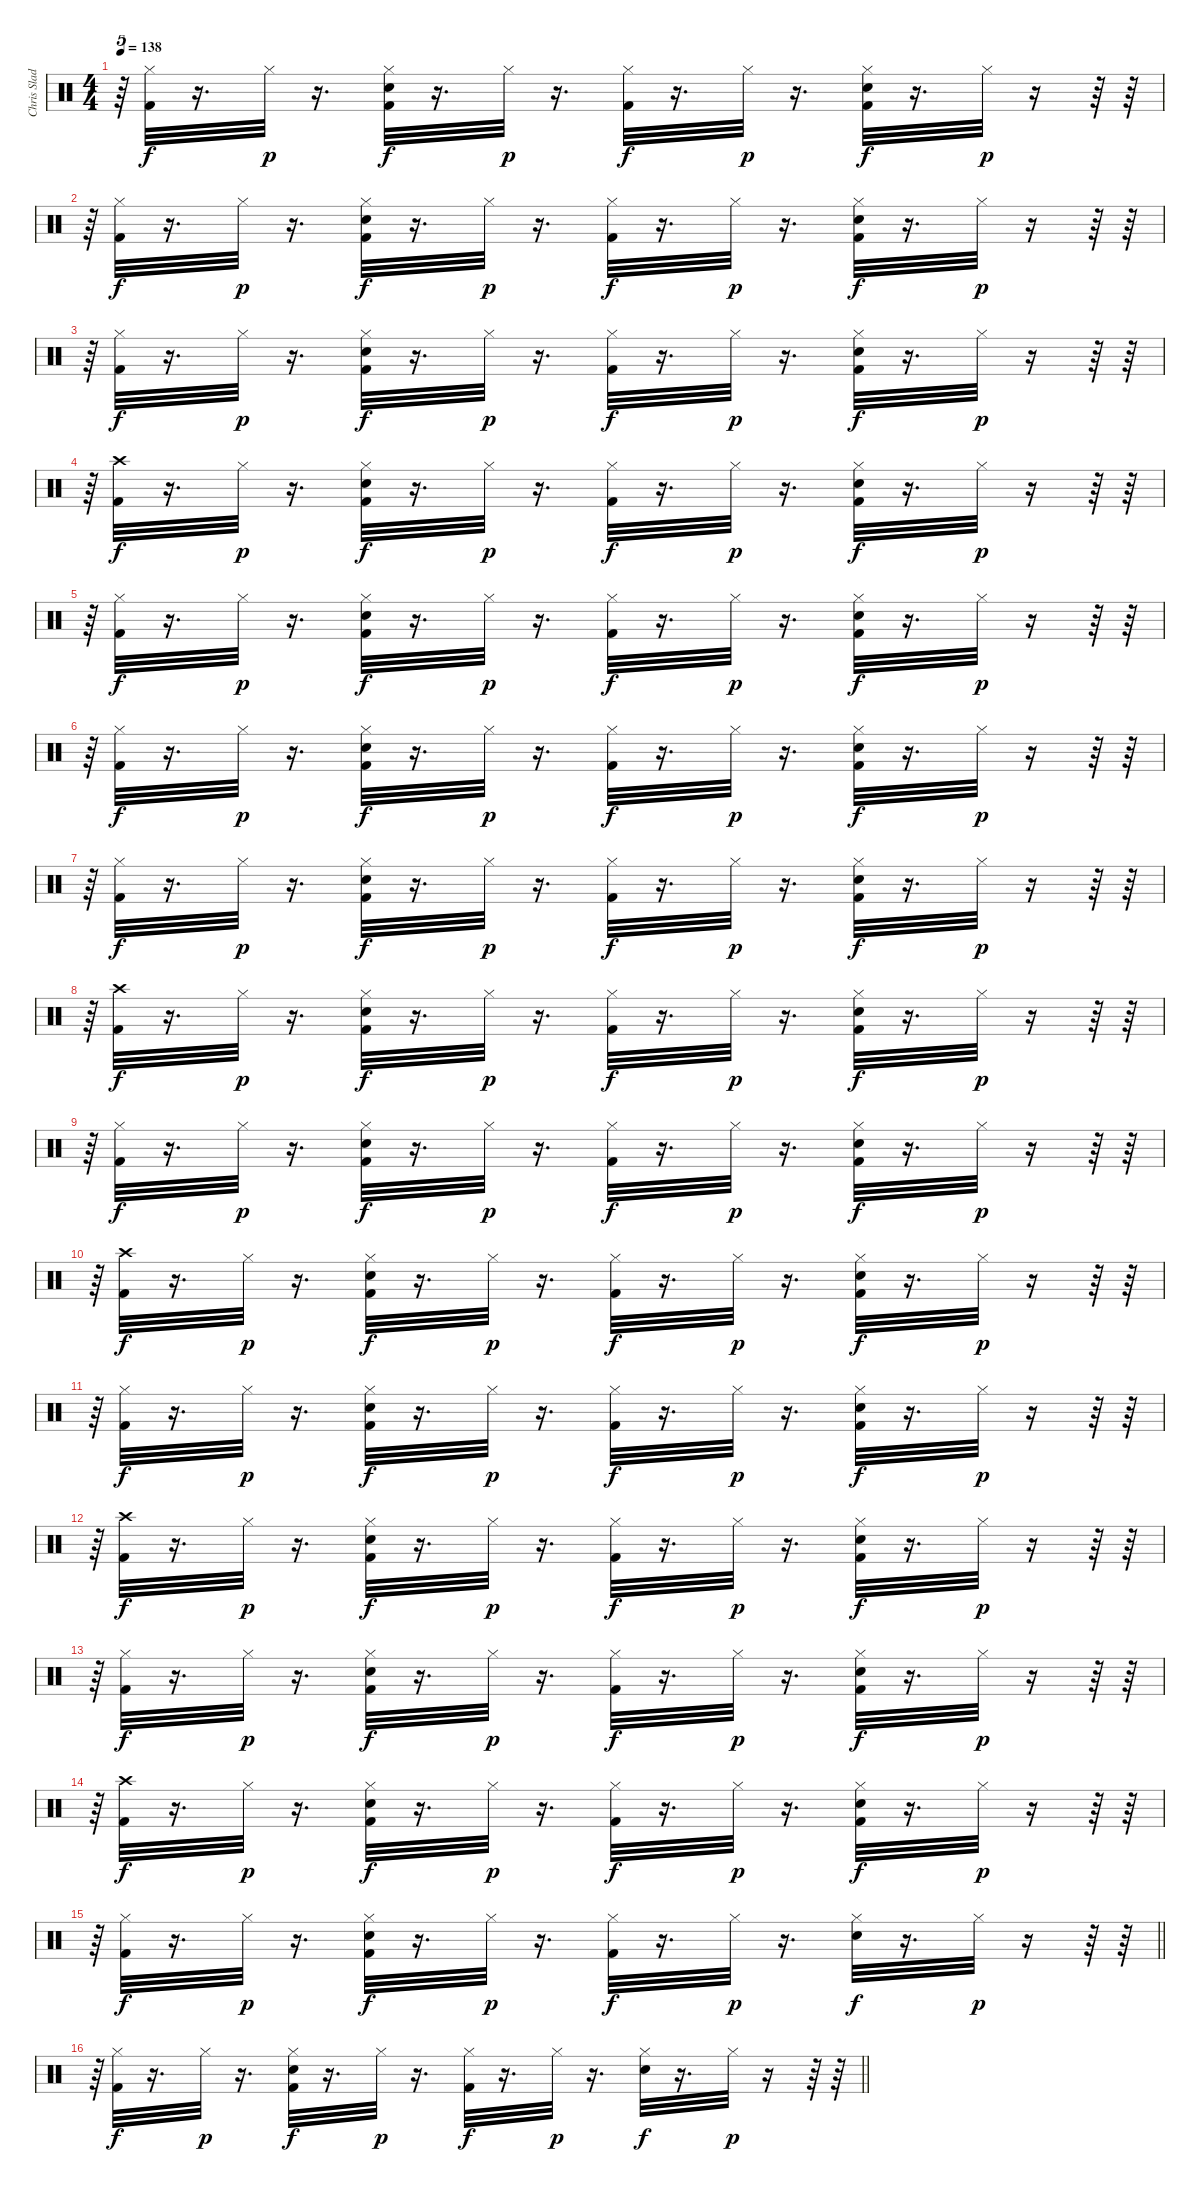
\track ("Chris Slade" "Chris Slad") {instrument percussion}
\staff {score}
\articulation defaults
\ts (4 4)
\tempo 138
\clef neutral
\ks c
r.64{tu (5 4) dy p} ("Hi-Hat (closed)" "Kick (hit) 2").32{dy f} r.16{d} "Hi-Hat (closed)".32{dy p} r.16{d} ("Kick (hit) 2" "Hi-Hat (closed)" "Electric Snare (hit)").32{dy f} r.16{d} "Hi-Hat (closed)".32{dy p} r.16{d} ("Hi-Hat (closed)" "Kick (hit) 2").32{dy f} r.16{d} "Hi-Hat (closed)".32{dy p} r.16{d} ("Kick (hit) 2" "Hi-Hat (closed)" "Electric Snare (hit)").32{dy f} r.16{d} "Hi-Hat (closed)".32{dy p} r.16 r.64 r.64 |
r.64{tu (5 4)} ("Hi-Hat (closed)" "Kick (hit) 2").32{dy f} r.16{d} "Hi-Hat (closed)".32{dy p} r.16{d} ("Kick (hit) 2" "Hi-Hat (closed)" "Electric Snare (hit)").32{dy f} r.16{d} "Hi-Hat (closed)".32{dy p} r.16{d} ("Hi-Hat (closed)" "Kick (hit) 2").32{dy f} r.16{d} "Hi-Hat (closed)".32{dy p} r.16{d} ("Kick (hit) 2" "Hi-Hat (closed)" "Electric Snare (hit)").32{dy f} r.16{d} "Hi-Hat (closed)".32{dy p} r.16 r.64 r.64 |
r.64{tu (5 4)} ("Hi-Hat (closed)" "Kick (hit) 2").32{dy f} r.16{d} "Hi-Hat (closed)".32{dy p} r.16{d} ("Kick (hit) 2" "Hi-Hat (closed)" "Electric Snare (hit)").32{dy f} r.16{d} "Hi-Hat (closed)".32{dy p} r.16{d} ("Hi-Hat (closed)" "Kick (hit) 2").32{dy f} r.16{d} "Hi-Hat (closed)".32{dy p} r.16{d} ("Kick (hit) 2" "Hi-Hat (closed)" "Electric Snare (hit)").32{dy f} r.16{d} "Hi-Hat (closed)".32{dy p} r.16 r.64 r.64 |
r.64{tu (5 4)} ("Crash high (hit)" "Kick (hit) 2").32{dy f} r.16{d} "Hi-Hat (closed)".32{dy p} r.16{d} ("Kick (hit) 2" "Hi-Hat (closed)" "Electric Snare (hit)").32{dy f} r.16{d} "Hi-Hat (closed)".32{dy p} r.16{d} ("Hi-Hat (closed)" "Kick (hit) 2").32{dy f} r.16{d} "Hi-Hat (closed)".32{dy p} r.16{d} ("Kick (hit) 2" "Hi-Hat (closed)" "Electric Snare (hit)").32{dy f} r.16{d} "Hi-Hat (closed)".32{dy p} r.16 r.64 r.64 |
r.64{tu (5 4)} ("Hi-Hat (closed)" "Kick (hit) 2").32{dy f} r.16{d} "Hi-Hat (closed)".32{dy p} r.16{d} ("Kick (hit) 2" "Hi-Hat (closed)" "Electric Snare (hit)").32{dy f} r.16{d} "Hi-Hat (closed)".32{dy p} r.16{d} ("Hi-Hat (closed)" "Kick (hit) 2").32{dy f} r.16{d} "Hi-Hat (closed)".32{dy p} r.16{d} ("Kick (hit) 2" "Hi-Hat (closed)" "Electric Snare (hit)").32{dy f} r.16{d} "Hi-Hat (closed)".32{dy p} r.16 r.64 r.64 |
r.64{tu (5 4)} ("Hi-Hat (closed)" "Kick (hit) 2").32{dy f} r.16{d} "Hi-Hat (closed)".32{dy p} r.16{d} ("Kick (hit) 2" "Hi-Hat (closed)" "Electric Snare (hit)").32{dy f} r.16{d} "Hi-Hat (closed)".32{dy p} r.16{d} ("Hi-Hat (closed)" "Kick (hit) 2").32{dy f} r.16{d} "Hi-Hat (closed)".32{dy p} r.16{d} ("Kick (hit) 2" "Hi-Hat (closed)" "Electric Snare (hit)").32{dy f} r.16{d} "Hi-Hat (closed)".32{dy p} r.16 r.64 r.64 |
r.64{tu (5 4)} ("Hi-Hat (closed)" "Kick (hit) 2").32{dy f} r.16{d} "Hi-Hat (closed)".32{dy p} r.16{d} ("Kick (hit) 2" "Hi-Hat (closed)" "Electric Snare (hit)").32{dy f} r.16{d} "Hi-Hat (closed)".32{dy p} r.16{d} ("Hi-Hat (closed)" "Kick (hit) 2").32{dy f} r.16{d} "Hi-Hat (closed)".32{dy p} r.16{d} ("Kick (hit) 2" "Hi-Hat (closed)" "Electric Snare (hit)").32{dy f} r.16{d} "Hi-Hat (closed)".32{dy p} r.16 r.64 r.64 |
r.64{tu (5 4)} ("Crash high (hit)" "Kick (hit) 2").32{dy f} r.16{d} "Hi-Hat (closed)".32{dy p} r.16{d} ("Kick (hit) 2" "Hi-Hat (closed)" "Electric Snare (hit)").32{dy f} r.16{d} "Hi-Hat (closed)".32{dy p} r.16{d} ("Hi-Hat (closed)" "Kick (hit) 2").32{dy f} r.16{d} "Hi-Hat (closed)".32{dy p} r.16{d} ("Kick (hit) 2" "Hi-Hat (closed)" "Electric Snare (hit)").32{dy f} r.16{d} "Hi-Hat (closed)".32{dy p} r.16 r.64 r.64 |
r.64{tu (5 4)} ("Hi-Hat (closed)" "Kick (hit) 2").32{dy f} r.16{d} "Hi-Hat (closed)".32{dy p} r.16{d} ("Kick (hit) 2" "Hi-Hat (closed)" "Electric Snare (hit)").32{dy f} r.16{d} "Hi-Hat (closed)".32{dy p} r.16{d} ("Hi-Hat (closed)" "Kick (hit) 2").32{dy f} r.16{d} "Hi-Hat (closed)".32{dy p} r.16{d} ("Kick (hit) 2" "Hi-Hat (closed)" "Electric Snare (hit)").32{dy f} r.16{d} "Hi-Hat (closed)".32{dy p} r.16 r.64 r.64 |
r.64{tu (5 4)} ("Crash high (hit)" "Kick (hit) 2").32{dy f} r.16{d} "Hi-Hat (closed)".32{dy p} r.16{d} ("Kick (hit) 2" "Hi-Hat (closed)" "Electric Snare (hit)").32{dy f} r.16{d} "Hi-Hat (closed)".32{dy p} r.16{d} ("Hi-Hat (closed)" "Kick (hit) 2").32{dy f} r.16{d} "Hi-Hat (closed)".32{dy p} r.16{d} ("Kick (hit) 2" "Hi-Hat (closed)" "Electric Snare (hit)").32{dy f} r.16{d} "Hi-Hat (closed)".32{dy p} r.16 r.64 r.64 |
r.64{tu (5 4)} ("Hi-Hat (closed)" "Kick (hit) 2").32{dy f} r.16{d} "Hi-Hat (closed)".32{dy p} r.16{d} ("Kick (hit) 2" "Hi-Hat (closed)" "Electric Snare (hit)").32{dy f} r.16{d} "Hi-Hat (closed)".32{dy p} r.16{d} ("Hi-Hat (closed)" "Kick (hit) 2").32{dy f} r.16{d} "Hi-Hat (closed)".32{dy p} r.16{d} ("Kick (hit) 2" "Hi-Hat (closed)" "Electric Snare (hit)").32{dy f} r.16{d} "Hi-Hat (closed)".32{dy p} r.16 r.64 r.64 |
r.64{tu (5 4)} ("Crash high (hit)" "Kick (hit) 2").32{dy f} r.16{d} "Hi-Hat (closed)".32{dy p} r.16{d} ("Kick (hit) 2" "Hi-Hat (closed)" "Electric Snare (hit)").32{dy f} r.16{d} "Hi-Hat (closed)".32{dy p} r.16{d} ("Hi-Hat (closed)" "Kick (hit) 2").32{dy f} r.16{d} "Hi-Hat (closed)".32{dy p} r.16{d} ("Kick (hit) 2" "Hi-Hat (closed)" "Electric Snare (hit)").32{dy f} r.16{d} "Hi-Hat (closed)".32{dy p} r.16 r.64 r.64 |
r.64{tu (5 4)} ("Hi-Hat (closed)" "Kick (hit) 2").32{dy f} r.16{d} "Hi-Hat (closed)".32{dy p} r.16{d} ("Kick (hit) 2" "Hi-Hat (closed)" "Electric Snare (hit)").32{dy f} r.16{d} "Hi-Hat (closed)".32{dy p} r.16{d} ("Hi-Hat (closed)" "Kick (hit) 2").32{dy f} r.16{d} "Hi-Hat (closed)".32{dy p} r.16{d} ("Kick (hit) 2" "Hi-Hat (closed)" "Electric Snare (hit)").32{dy f} r.16{d} "Hi-Hat (closed)".32{dy p} r.16 r.64 r.64 |
r.64{tu (5 4)} ("Crash high (hit)" "Kick (hit) 2").32{dy f} r.16{d} "Hi-Hat (closed)".32{dy p} r.16{d} ("Kick (hit) 2" "Hi-Hat (closed)" "Electric Snare (hit)").32{dy f} r.16{d} "Hi-Hat (closed)".32{dy p} r.16{d} ("Hi-Hat (closed)" "Kick (hit) 2").32{dy f} r.16{d} "Hi-Hat (closed)".32{dy p} r.16{d} ("Kick (hit) 2" "Hi-Hat (closed)" "Electric Snare (hit)").32{dy f} r.16{d} "Hi-Hat (closed)".32{dy p} r.16 r.64 r.64 |
\barLineRight lightlight
r.64{tu (5 4)} ("Hi-Hat (closed)" "Kick (hit) 2").32{dy f} r.16{d} "Hi-Hat (closed)".32{dy p} r.16{d} ("Kick (hit) 2" "Hi-Hat (closed)" "Electric Snare (hit)").32{dy f} r.16{d} "Hi-Hat (closed)".32{dy p} r.16{d} ("Hi-Hat (closed)" "Kick (hit) 2").32{dy f} r.16{d} "Hi-Hat (closed)".32{dy p} r.16{d} ("Hi-Hat (closed)" "Electric Snare (hit)").32{dy f} r.16{d} "Hi-Hat (closed)".32{dy p} r.16 r.64 r.64 |
\section ("" "")
\barLineRight lightlight
r.64{tu (5 4)} ("Hi-Hat (closed)" "Kick (hit) 2").32{dy f} r.16{d} "Hi-Hat (closed)".32{dy p} r.16{d} ("Kick (hit) 2" "Hi-Hat (closed)" "Electric Snare (hit)").32{dy f} r.16{d} "Hi-Hat (closed)".32{dy p} r.16{d} ("Hi-Hat (closed)" "Kick (hit) 2").32{dy f} r.16{d} "Hi-Hat (closed)".32{dy p} r.16{d} ("Hi-Hat (closed)" "Electric Snare (hit)").32{dy f} r.16{d} "Hi-Hat (closed)".32{dy p} r.16 r.64 r.64
